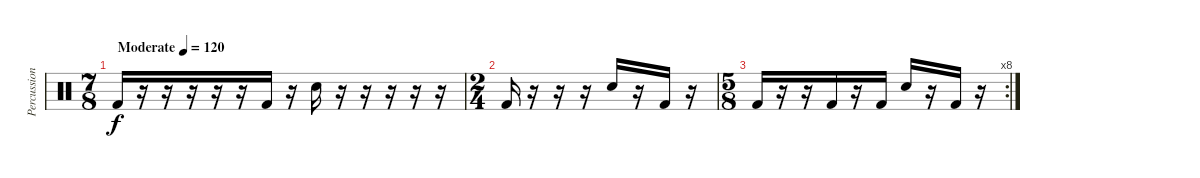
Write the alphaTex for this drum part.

\track ("Percussion" "Percussion") {instrument percussion}
\staff {score}
\articulation defaults
\ts (7 8)
\tempo (120 "Moderate")
\clef neutral
\ks c "Kick (hit) 2".16{dy f}
r.16 r.16 r.16 r.16 r.16 "Kick (hit) 2".16 r.16 "Electric Snare (hit)".16 r.16 r.16 r.16 r.16 r.16 |
\ts (2 4)
"Kick (hit) 2".16 r.16 r.16 r.16 "Electric Snare (hit)".16 r.16 "Kick (hit) 2".16 r.16 |
\rc 8
\ts (5 8)
"Kick (hit) 2".16 r.16 r.16 "Kick (hit) 2".16 r.16 "Kick (hit) 2".16 "Electric Snare (hit)".16 r.16 "Kick (hit) 2".16 r.16
